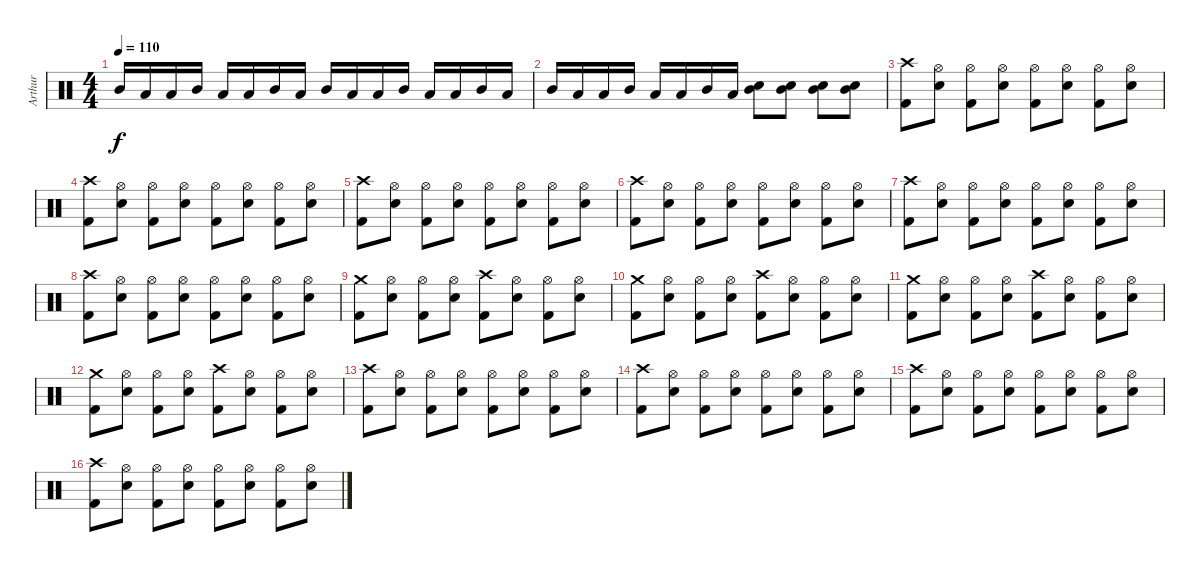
\track ("Arthur" "Arthur") {instrument percussion}
\staff {score}
\articulation defaults
\ts (4 4)
\tempo 110
\clef neutral
\ks c "Mid Tom (hit)".16{dy f} "Low Tom (hit)".16 "Low Tom (hit)".16 "Mid Tom (hit)".16 "Low Tom (hit)".16 "Low Tom (hit)".16 "Mid Tom (hit)".16 "Low Tom (hit)".16 "Mid Tom (hit)".16 "Low Tom (hit)".16 "Low Tom (hit)".16 "Mid Tom (hit)".16 "Low Tom (hit)".16 "Low Tom (hit)".16 "Mid Tom (hit)".16 "Low Tom (hit)".16
|
"Mid Tom (hit)".16 "Low Tom (hit)".16 "Low Tom (hit)".16 "Mid Tom (hit)".16 "Low Tom (hit)".16 "Low Tom (hit)".16 "Mid Tom (hit)".16 "Low Tom (hit)".16 ("Mid Tom (hit)" "Electric Snare (hit)").8 ("Mid Tom (hit)" "Electric Snare (hit)").8 ("Mid Tom (hit)" "Electric Snare (hit)").8 ("Mid Tom (hit)" "Electric Snare (hit)").8 |
("Crash high (hit)" "Kick (hit) 2").8 ("Hi-Hat (open)" "Electric Snare (hit)").8 ("Hi-Hat (open)" "Kick (hit) 2").8 ("Hi-Hat (open)" "Electric Snare (hit)").8 ("Hi-Hat (open)" "Kick (hit) 2").8 ("Hi-Hat (open)" "Electric Snare (hit)").8 ("Hi-Hat (open)" "Kick (hit) 2").8 ("Hi-Hat (open)" "Electric Snare (hit)").8 |
("Crash high (hit)" "Kick (hit) 2").8 ("Hi-Hat (open)" "Electric Snare (hit)").8 ("Hi-Hat (open)" "Kick (hit) 2").8 ("Hi-Hat (open)" "Electric Snare (hit)").8 ("Hi-Hat (open)" "Kick (hit) 2").8 ("Hi-Hat (open)" "Electric Snare (hit)").8 ("Hi-Hat (open)" "Kick (hit) 2").8 ("Hi-Hat (open)" "Electric Snare (hit)").8 |
("Crash high (hit)" "Kick (hit) 2").8 ("Hi-Hat (open)" "Electric Snare (hit)").8 ("Hi-Hat (open)" "Kick (hit) 2").8 ("Hi-Hat (open)" "Electric Snare (hit)").8 ("Hi-Hat (open)" "Kick (hit) 2").8 ("Hi-Hat (open)" "Electric Snare (hit)").8 ("Hi-Hat (open)" "Kick (hit) 2").8 ("Hi-Hat (open)" "Electric Snare (hit)").8 |
("Crash high (hit)" "Kick (hit) 2").8 ("Hi-Hat (open)" "Electric Snare (hit)").8 ("Hi-Hat (open)" "Kick (hit) 2").8 ("Hi-Hat (open)" "Electric Snare (hit)").8 ("Hi-Hat (open)" "Kick (hit) 2").8 ("Hi-Hat (open)" "Electric Snare (hit)").8 ("Hi-Hat (open)" "Kick (hit) 2").8 ("Hi-Hat (open)" "Electric Snare (hit)").8 |
("Crash high (hit)" "Kick (hit) 2").8 ("Hi-Hat (open)" "Electric Snare (hit)").8 ("Hi-Hat (open)" "Kick (hit) 2").8 ("Hi-Hat (open)" "Electric Snare (hit)").8 ("Hi-Hat (open)" "Kick (hit) 2").8 ("Hi-Hat (open)" "Electric Snare (hit)").8 ("Hi-Hat (open)" "Kick (hit) 2").8 ("Hi-Hat (open)" "Electric Snare (hit)").8 |
("Crash high (hit)" "Kick (hit) 2").8 ("Hi-Hat (open)" "Electric Snare (hit)").8 ("Hi-Hat (open)" "Kick (hit) 2").8 ("Hi-Hat (open)" "Electric Snare (hit)").8 ("Hi-Hat (open)" "Kick (hit) 2").8 ("Hi-Hat (open)" "Electric Snare (hit)").8 ("Hi-Hat (open)" "Kick (hit) 2").8 ("Hi-Hat (open)" "Electric Snare (hit)").8 |
("Crash medium (hit)" "Kick (hit) 2").8 ("Hi-Hat (open)" "Electric Snare (hit)").8 ("Hi-Hat (open)" "Kick (hit) 2").8 ("Hi-Hat (open)" "Electric Snare (hit)").8 ("Crash high (hit)" "Kick (hit) 2").8 ("Hi-Hat (open)" "Electric Snare (hit)").8 ("Hi-Hat (open)" "Kick (hit) 2").8 ("Hi-Hat (open)" "Electric Snare (hit)").8 |
("Crash medium (hit)" "Kick (hit) 2").8 ("Hi-Hat (open)" "Electric Snare (hit)").8 ("Hi-Hat (open)" "Kick (hit) 2").8 ("Hi-Hat (open)" "Electric Snare (hit)").8 ("Crash high (hit)" "Kick (hit) 2").8 ("Hi-Hat (open)" "Electric Snare (hit)").8 ("Hi-Hat (open)" "Kick (hit) 2").8 ("Hi-Hat (open)" "Electric Snare (hit)").8 |
("Crash medium (hit)" "Kick (hit) 2").8 ("Hi-Hat (open)" "Electric Snare (hit)").8 ("Hi-Hat (open)" "Kick (hit) 2").8 ("Hi-Hat (open)" "Electric Snare (hit)").8 ("Crash high (hit)" "Kick (hit) 2").8 ("Hi-Hat (open)" "Electric Snare (hit)").8 ("Hi-Hat (open)" "Kick (hit) 2").8 ("Hi-Hat (open)" "Electric Snare (hit)").8 |
("Crash medium (hit)" "Kick (hit) 2").8 ("Hi-Hat (open)" "Electric Snare (hit)").8 ("Hi-Hat (open)" "Kick (hit) 2").8 ("Hi-Hat (open)" "Electric Snare (hit)").8 ("Crash high (hit)" "Kick (hit) 2").8 ("Hi-Hat (open)" "Electric Snare (hit)").8 ("Hi-Hat (open)" "Kick (hit) 2").8 ("Hi-Hat (open)" "Electric Snare (hit)").8 |
("Crash high (hit)" "Kick (hit) 2").8 ("Hi-Hat (open)" "Electric Snare (hit)").8 ("Hi-Hat (open)" "Kick (hit) 2").8 ("Hi-Hat (open)" "Electric Snare (hit)").8 ("Hi-Hat (open)" "Kick (hit) 2").8 ("Hi-Hat (open)" "Electric Snare (hit)").8 ("Hi-Hat (open)" "Kick (hit) 2").8 ("Hi-Hat (open)" "Electric Snare (hit)").8 |
("Crash high (hit)" "Kick (hit) 2").8 ("Hi-Hat (open)" "Electric Snare (hit)").8 ("Hi-Hat (open)" "Kick (hit) 2").8 ("Hi-Hat (open)" "Electric Snare (hit)").8 ("Hi-Hat (open)" "Kick (hit) 2").8 ("Hi-Hat (open)" "Electric Snare (hit)").8 ("Hi-Hat (open)" "Kick (hit) 2").8 ("Hi-Hat (open)" "Electric Snare (hit)").8 |
("Crash high (hit)" "Kick (hit) 2").8 ("Hi-Hat (open)" "Electric Snare (hit)").8 ("Hi-Hat (open)" "Kick (hit) 2").8 ("Hi-Hat (open)" "Electric Snare (hit)").8 ("Hi-Hat (open)" "Kick (hit) 2").8 ("Hi-Hat (open)" "Electric Snare (hit)").8 ("Hi-Hat (open)" "Kick (hit) 2").8 ("Hi-Hat (open)" "Electric Snare (hit)").8 |
("Crash high (hit)" "Kick (hit) 2").8 ("Hi-Hat (open)" "Electric Snare (hit)").8 ("Hi-Hat (open)" "Kick (hit) 2").8 ("Hi-Hat (open)" "Electric Snare (hit)").8 ("Hi-Hat (open)" "Kick (hit) 2").8 ("Hi-Hat (open)" "Electric Snare (hit)").8 ("Hi-Hat (open)" "Kick (hit) 2").8 ("Hi-Hat (open)" "Electric Snare (hit)").8
